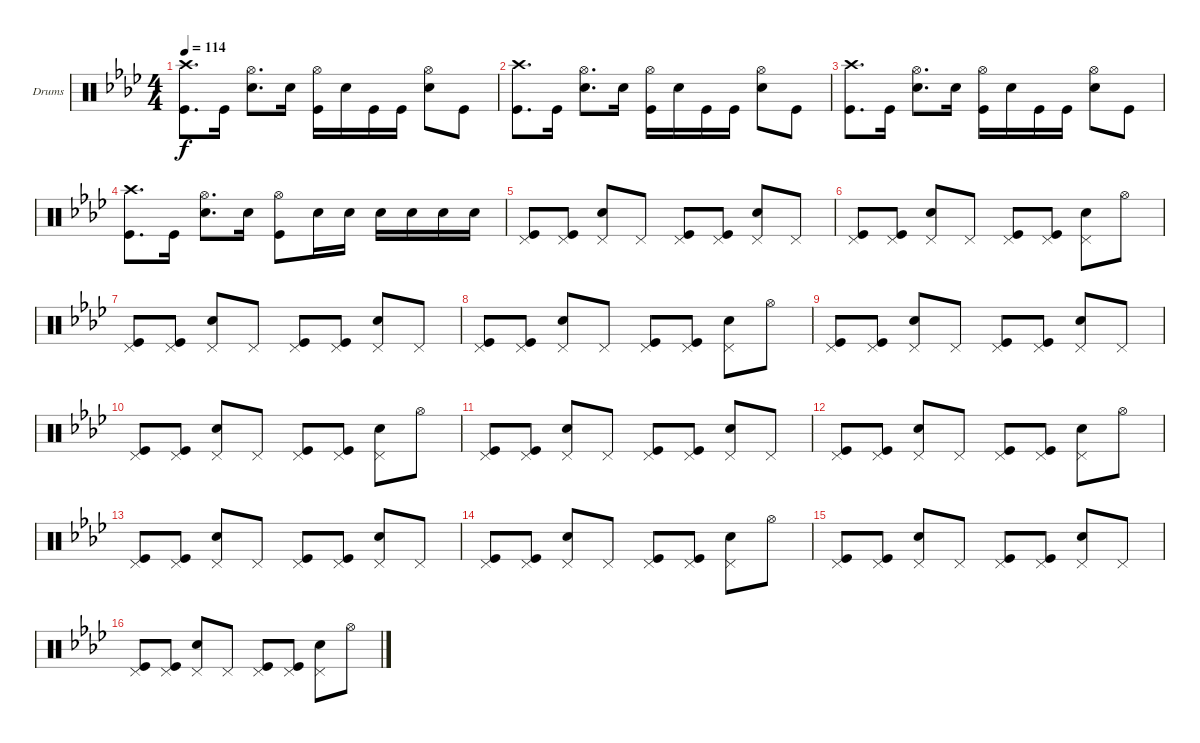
\defaultSystemsLayout 4
\bracketExtendMode groupsimilarinstruments
\firstSystemTrackNameOrientation horizontal
\otherSystemsTrackNameOrientation horizontal
\track ("Drumkit" "Drums") {instrument percussion}
\staff {score}
\articulation defaults
\ts (4 4)
\tempo 114
\clef neutral
\scale
1.06431
\ks ab
("Crash high (hit)" "Kick (hit)").8{d dy f} "Kick (hit)".16 ("Hi-Hat (open)" "Snare (hit) 2").8{d} "Snare (hit) 2".16 ("Hi-Hat (open)" "Kick (hit)").16 "Snare (hit) 2".16 "Kick (hit)".16 "Kick (hit)".16 ("Hi-Hat (open)" "Snare (hit) 2").8 "Kick (hit)".8 |
\scale
0.935687 ("Crash high (hit)" "Kick (hit)").8{d} "Kick (hit)".16 ("Hi-Hat (open)" "Snare (hit) 2").8{d} "Snare (hit) 2".16 ("Hi-Hat (open)" "Kick (hit)").16 "Snare (hit) 2".16 "Kick (hit)".16 "Kick (hit)".16 ("Hi-Hat (open)" "Snare (hit) 2").8 "Kick (hit)".8 |
\scale
1.06431 ("Crash high (hit)" "Kick (hit)").8{d} "Kick (hit)".16 ("Hi-Hat (open)" "Snare (hit) 2").8{d} "Snare (hit) 2".16 ("Hi-Hat (open)" "Kick (hit)").16 "Snare (hit) 2".16 "Kick (hit)".16 "Kick (hit)".16 ("Hi-Hat (open)" "Snare (hit) 2").8 "Kick (hit)".8 |
\scale
0.935687 ("Crash high (hit)" "Kick (hit)").8{d} "Kick (hit)".16 ("Hi-Hat (open)" "Snare (hit) 2").8{d} "Snare (hit) 2".16 ("Hi-Hat (open)" "Kick (hit)").8 "Snare (hit) 2".16 "Snare (hit) 2".16 "Snare (hit) 2".16 "Snare (hit) 2".16 "Snare (hit) 2".16 "Snare (hit) 2".16 |
\scale
1.06431 ("Pedal Hi-Hat (hit)" "Kick (hit)").8 ("Pedal Hi-Hat (hit)" "Kick (hit)").8 ("Pedal Hi-Hat (hit)" "Snare (hit) 2").8 "Pedal Hi-Hat (hit)".8 ("Pedal Hi-Hat (hit)" "Kick (hit)").8 ("Pedal Hi-Hat (hit)" "Kick (hit)").8 ("Pedal Hi-Hat (hit)" "Snare (hit) 2").8 "Pedal Hi-Hat (hit)".8 |
\scale
0.935687 ("Pedal Hi-Hat (hit)" "Kick (hit)").8 ("Pedal Hi-Hat (hit)" "Kick (hit)").8 ("Pedal Hi-Hat (hit)" "Snare (hit) 2").8 "Pedal Hi-Hat (hit)".8 ("Pedal Hi-Hat (hit)" "Kick (hit)").8 ("Pedal Hi-Hat (hit)" "Kick (hit)").8 ("Pedal Hi-Hat (hit)" "Snare (hit) 2").8 "Hi-Hat (open)".8 |
\scale
1.06431 ("Pedal Hi-Hat (hit)" "Kick (hit)").8 ("Pedal Hi-Hat (hit)" "Kick (hit)").8 ("Pedal Hi-Hat (hit)" "Snare (hit) 2").8 "Pedal Hi-Hat (hit)".8 ("Pedal Hi-Hat (hit)" "Kick (hit)").8 ("Pedal Hi-Hat (hit)" "Kick (hit)").8 ("Pedal Hi-Hat (hit)" "Snare (hit) 2").8 "Pedal Hi-Hat (hit)".8 |
\scale
0.935687 ("Pedal Hi-Hat (hit)" "Kick (hit)").8 ("Pedal Hi-Hat (hit)" "Kick (hit)").8 ("Pedal Hi-Hat (hit)" "Snare (hit) 2").8 "Pedal Hi-Hat (hit)".8 ("Pedal Hi-Hat (hit)" "Kick (hit)").8 ("Pedal Hi-Hat (hit)" "Kick (hit)").8 ("Pedal Hi-Hat (hit)" "Snare (hit) 2").8 "Hi-Hat (open)".8 |
\scale
1.06431 ("Pedal Hi-Hat (hit)" "Kick (hit)").8 ("Pedal Hi-Hat (hit)" "Kick (hit)").8 ("Pedal Hi-Hat (hit)" "Snare (hit) 2").8 "Pedal Hi-Hat (hit)".8 ("Pedal Hi-Hat (hit)" "Kick (hit)").8 ("Pedal Hi-Hat (hit)" "Kick (hit)").8 ("Pedal Hi-Hat (hit)" "Snare (hit) 2").8 "Pedal Hi-Hat (hit)".8 |
\scale
0.935687 ("Pedal Hi-Hat (hit)" "Kick (hit)").8 ("Pedal Hi-Hat (hit)" "Kick (hit)").8 ("Pedal Hi-Hat (hit)" "Snare (hit) 2").8 "Pedal Hi-Hat (hit)".8 ("Pedal Hi-Hat (hit)" "Kick (hit)").8 ("Pedal Hi-Hat (hit)" "Kick (hit)").8 ("Pedal Hi-Hat (hit)" "Snare (hit) 2").8 "Hi-Hat (open)".8 |
\scale
1.06431 ("Pedal Hi-Hat (hit)" "Kick (hit)").8 ("Pedal Hi-Hat (hit)" "Kick (hit)").8 ("Pedal Hi-Hat (hit)" "Snare (hit) 2").8 "Pedal Hi-Hat (hit)".8 ("Pedal Hi-Hat (hit)" "Kick (hit)").8 ("Pedal Hi-Hat (hit)" "Kick (hit)").8 ("Pedal Hi-Hat (hit)" "Snare (hit) 2").8 "Pedal Hi-Hat (hit)".8 |
\scale
0.935687 ("Pedal Hi-Hat (hit)" "Kick (hit)").8 ("Pedal Hi-Hat (hit)" "Kick (hit)").8 ("Pedal Hi-Hat (hit)" "Snare (hit) 2").8 "Pedal Hi-Hat (hit)".8 ("Pedal Hi-Hat (hit)" "Kick (hit)").8 ("Pedal Hi-Hat (hit)" "Kick (hit)").8 ("Pedal Hi-Hat (hit)" "Snare (hit) 2").8 "Hi-Hat (open)".8 |
\scale
1.06431 ("Pedal Hi-Hat (hit)" "Kick (hit)").8 ("Pedal Hi-Hat (hit)" "Kick (hit)").8 ("Pedal Hi-Hat (hit)" "Snare (hit) 2").8 "Pedal Hi-Hat (hit)".8 ("Pedal Hi-Hat (hit)" "Kick (hit)").8 ("Pedal Hi-Hat (hit)" "Kick (hit)").8 ("Pedal Hi-Hat (hit)" "Snare (hit) 2").8 "Pedal Hi-Hat (hit)".8 |
\scale
0.935687 ("Pedal Hi-Hat (hit)" "Kick (hit)").8 ("Pedal Hi-Hat (hit)" "Kick (hit)").8 ("Pedal Hi-Hat (hit)" "Snare (hit) 2").8 "Pedal Hi-Hat (hit)".8 ("Pedal Hi-Hat (hit)" "Kick (hit)").8 ("Pedal Hi-Hat (hit)" "Kick (hit)").8 ("Pedal Hi-Hat (hit)" "Snare (hit) 2").8 "Hi-Hat (open)".8 |
\scale
1.06431 ("Pedal Hi-Hat (hit)" "Kick (hit)").8 ("Pedal Hi-Hat (hit)" "Kick (hit)").8 ("Pedal Hi-Hat (hit)" "Snare (hit) 2").8 "Pedal Hi-Hat (hit)".8 ("Pedal Hi-Hat (hit)" "Kick (hit)").8 ("Pedal Hi-Hat (hit)" "Kick (hit)").8 ("Pedal Hi-Hat (hit)" "Snare (hit) 2").8 "Pedal Hi-Hat (hit)".8 |
\scale
0.935687 ("Pedal Hi-Hat (hit)" "Kick (hit)").8 ("Pedal Hi-Hat (hit)" "Kick (hit)").8 ("Pedal Hi-Hat (hit)" "Snare (hit) 2").8 "Pedal Hi-Hat (hit)".8 ("Pedal Hi-Hat (hit)" "Kick (hit)").8 ("Pedal Hi-Hat (hit)" "Kick (hit)").8 ("Pedal Hi-Hat (hit)" "Snare (hit) 2").8 "Hi-Hat (open)".8
